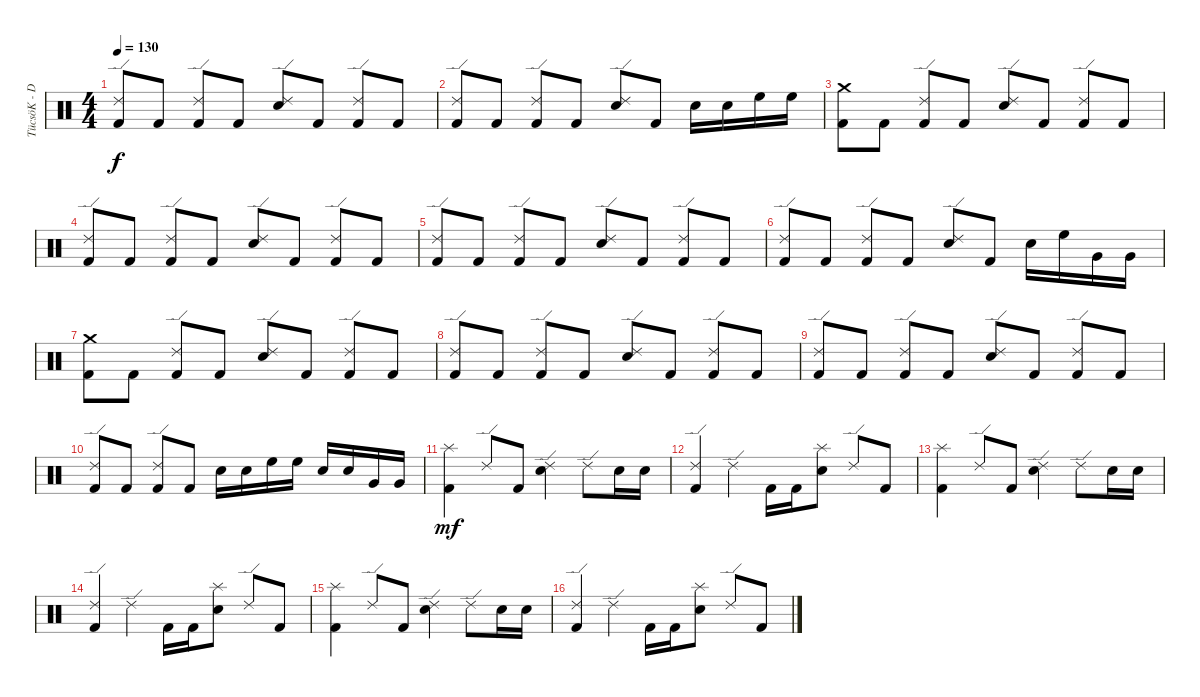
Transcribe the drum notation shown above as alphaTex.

\track ("TücsöK - Dob" "TücsöK - D") {instrument percussion}
\staff {score}
\articulation defaults
\ts (4 4)
\tempo 130
\clef neutral
\ks c
("Ride (edge) 2" "Kick (hit) 2").8{dy f} "Kick (hit) 2".8 ("Ride (edge) 2" "Kick (hit) 2").8 "Kick (hit) 2".8 ("Ride (edge) 2" "Snare (hit) 2").8 "Kick (hit) 2".8 ("Ride (edge) 2" "Kick (hit) 2").8 "Kick (hit) 2".8 |
("Ride (edge) 2" "Kick (hit) 2").8 "Kick (hit) 2".8 ("Ride (edge) 2" "Kick (hit) 2").8 "Kick (hit) 2".8 ("Ride (edge) 2" "Snare (hit) 2").8 "Kick (hit) 2".8 "Snare (hit) 2".16 "Snare (hit) 2".16 "High Floor Tom (hit)".16 "High Floor Tom (hit)".16 |
("Crash medium (hit)" "Kick (hit) 2").8 "Kick (hit) 2".8 ("Ride (edge) 2" "Kick (hit) 2").8 "Kick (hit) 2".8 ("Ride (edge) 2" "Snare (hit) 2").8 "Kick (hit) 2".8 ("Ride (edge) 2" "Kick (hit) 2").8 "Kick (hit) 2".8 |
("Ride (edge) 2" "Kick (hit) 2").8 "Kick (hit) 2".8 ("Ride (edge) 2" "Kick (hit) 2").8 "Kick (hit) 2".8 ("Ride (edge) 2" "Snare (hit) 2").8 "Kick (hit) 2".8 ("Ride (edge) 2" "Kick (hit) 2").8 "Kick (hit) 2".8 |
("Ride (edge) 2" "Kick (hit) 2").8 "Kick (hit) 2".8 ("Ride (edge) 2" "Kick (hit) 2").8 "Kick (hit) 2".8 ("Ride (edge) 2" "Snare (hit) 2").8 "Kick (hit) 2".8 ("Ride (edge) 2" "Kick (hit) 2").8 "Kick (hit) 2".8 |
("Ride (edge) 2" "Kick (hit) 2").8 "Kick (hit) 2".8 ("Ride (edge) 2" "Kick (hit) 2").8 "Kick (hit) 2".8 ("Ride (edge) 2" "Snare (hit) 2").8 "Kick (hit) 2".8 "Snare (hit) 2".16 "High Floor Tom (hit)".16 "Very Low Tom (hit)".16 "Very Low Tom (hit)".16 |
("Crash medium (hit)" "Kick (hit) 2").8 "Kick (hit) 2".8 ("Ride (edge) 2" "Kick (hit) 2").8 "Kick (hit) 2".8 ("Ride (edge) 2" "Snare (hit) 2").8 "Kick (hit) 2".8 ("Ride (edge) 2" "Kick (hit) 2").8 "Kick (hit) 2".8 |
("Ride (edge) 2" "Kick (hit) 2").8 "Kick (hit) 2".8 ("Ride (edge) 2" "Kick (hit) 2").8 "Kick (hit) 2".8 ("Ride (edge) 2" "Snare (hit) 2").8 "Kick (hit) 2".8 ("Ride (edge) 2" "Kick (hit) 2").8 "Kick (hit) 2".8 |
("Ride (edge) 2" "Kick (hit) 2").8 "Kick (hit) 2".8 ("Ride (edge) 2" "Kick (hit) 2").8 "Kick (hit) 2".8 ("Ride (edge) 2" "Snare (hit) 2").8 "Kick (hit) 2".8 ("Ride (edge) 2" "Kick (hit) 2").8 "Kick (hit) 2".8 |
("Ride (edge) 2" "Kick (hit) 2").8 "Kick (hit) 2".8 ("Ride (edge) 2" "Kick (hit) 2").8 "Kick (hit) 2".8 "Snare (hit) 2".16 "Snare (hit) 2".16 "High Floor Tom (hit)".16 "High Floor Tom (hit)".16 "Snare (hit) 2".16 "Snare (hit) 2".16 "Very Low Tom (hit)".16 "Very Low Tom (hit)".16 |
("Splash (hit)" "Kick (hit) 2").4{dy mf} "Ride (edge) 2".8 "Kick (hit) 2".8 ("Ride (edge) 2" "Snare (hit) 2").4 "Ride (edge) 2".8 "Snare (hit) 2".16 "Snare (hit) 2".16 |
("Ride (edge) 2" "Kick (hit) 2").4 "Ride (edge) 2".4 "Kick (hit) 2".16 "Kick (hit) 2".16 ("Splash (hit)" "Snare (hit) 2").8 "Ride (edge) 2".8 "Kick (hit) 2".8 |
("Splash (hit)" "Kick (hit) 2").4 "Ride (edge) 2".8 "Kick (hit) 2".8 ("Ride (edge) 2" "Snare (hit) 2").4 "Ride (edge) 2".8 "Snare (hit) 2".16 "Snare (hit) 2".16 |
("Ride (edge) 2" "Kick (hit) 2").4 "Ride (edge) 2".4 "Kick (hit) 2".16 "Kick (hit) 2".16 ("Splash (hit)" "Snare (hit) 2").8 "Ride (edge) 2".8 "Kick (hit) 2".8 |
("Splash (hit)" "Kick (hit) 2").4 "Ride (edge) 2".8 "Kick (hit) 2".8 ("Ride (edge) 2" "Snare (hit) 2").4 "Ride (edge) 2".8 "Snare (hit) 2".16 "Snare (hit) 2".16 |
("Ride (edge) 2" "Kick (hit) 2").4 "Ride (edge) 2".4 "Kick (hit) 2".16 "Kick (hit) 2".16 ("Splash (hit)" "Snare (hit) 2").8 "Ride (edge) 2".8 "Kick (hit) 2".8
